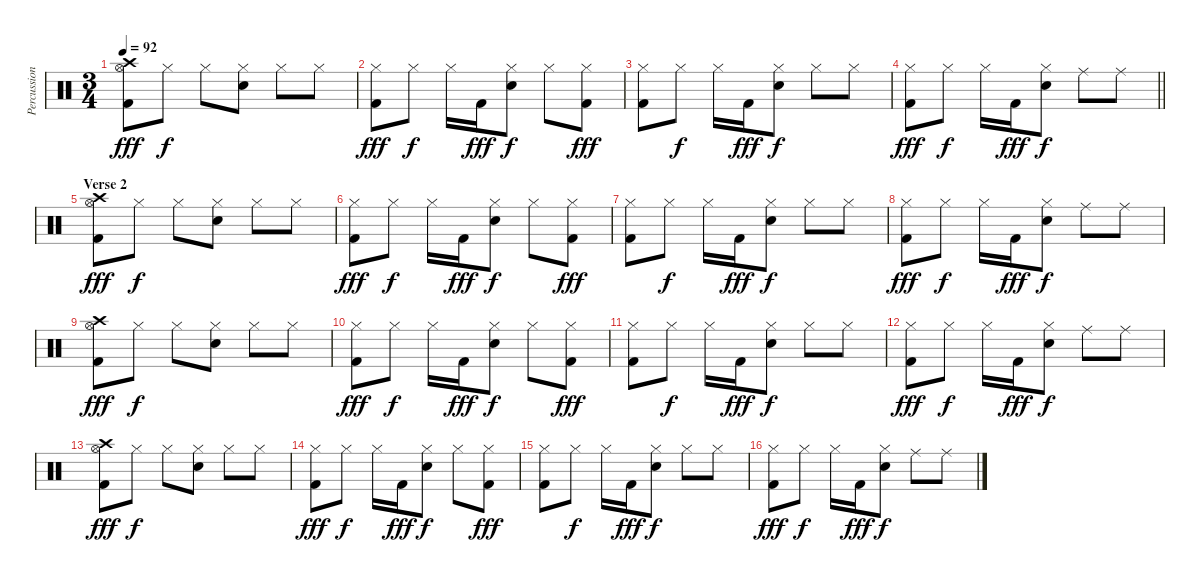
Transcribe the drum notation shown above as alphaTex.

\track ("Percussion" "Percussion") {instrument percussion}
\staff {score}
\articulation defaults
\ts (3 4)
\tempo 92
\clef neutral
\ks c
("Kick (hit) 2" "Hi-Hat (open)" "Crash high (hit)").8{dy fff} "Hi-Hat (closed)".8{dy f} "Hi-Hat (closed)".8 ("Electric Snare (hit)" "Hi-Hat (closed)").8 "Hi-Hat (closed)".8 "Hi-Hat (closed)".8 |
("Kick (hit) 2" "Hi-Hat (closed)").8{dy fff} "Hi-Hat (closed)".8{dy f} "Hi-Hat (closed)".16 "Kick (hit) 2".16{dy fff} ("Electric Snare (hit)" "Hi-Hat (closed)").8{dy f} "Hi-Hat (closed)".8 ("Kick (hit) 2" "Hi-Hat (closed)").8{dy fff} |
("Kick (hit) 2" "Hi-Hat (closed)").8 "Hi-Hat (closed)".8{dy f} "Hi-Hat (closed)".16 "Kick (hit) 2".16{dy fff} ("Electric Snare (hit)" "Hi-Hat (closed)").8{dy f} "Hi-Hat (closed)".8 "Hi-Hat (closed)".8 |
\barLineRight lightlight
("Kick (hit) 2" "Hi-Hat (closed)").8{dy fff} "Hi-Hat (closed)".8{dy f} "Hi-Hat (closed)".16 "Kick (hit) 2".16{dy fff} ("Electric Snare (hit)" "Hi-Hat (closed)").8{dy f} "Ride (middle)".8 "Ride (middle)".8 |
\section ("" "Verse 2")
("Kick (hit) 2" "Hi-Hat (open)" "Crash high (hit)").8{dy fff} "Hi-Hat (closed)".8{dy f} "Hi-Hat (closed)".8 ("Electric Snare (hit)" "Hi-Hat (closed)").8 "Hi-Hat (closed)".8 "Hi-Hat (closed)".8 |
("Kick (hit) 2" "Hi-Hat (closed)").8{dy fff} "Hi-Hat (closed)".8{dy f} "Hi-Hat (closed)".16 "Kick (hit) 2".16{dy fff} ("Electric Snare (hit)" "Hi-Hat (closed)").8{dy f} "Hi-Hat (closed)".8 ("Kick (hit) 2" "Hi-Hat (closed)").8{dy fff} |
("Kick (hit) 2" "Hi-Hat (closed)").8 "Hi-Hat (closed)".8{dy f} "Hi-Hat (closed)".16 "Kick (hit) 2".16{dy fff} ("Electric Snare (hit)" "Hi-Hat (closed)").8{dy f} "Hi-Hat (closed)".8 "Hi-Hat (closed)".8 |
("Kick (hit) 2" "Hi-Hat (closed)").8{dy fff} "Hi-Hat (closed)".8{dy f} "Hi-Hat (closed)".16 "Kick (hit) 2".16{dy fff} ("Electric Snare (hit)" "Hi-Hat (closed)").8{dy f} "Ride (middle)".8 "Ride (middle)".8 |
("Kick (hit) 2" "Hi-Hat (open)" "Crash high (hit)").8{dy fff} "Hi-Hat (closed)".8{dy f} "Hi-Hat (closed)".8 ("Electric Snare (hit)" "Hi-Hat (closed)").8 "Hi-Hat (closed)".8 "Hi-Hat (closed)".8 |
("Kick (hit) 2" "Hi-Hat (closed)").8{dy fff} "Hi-Hat (closed)".8{dy f} "Hi-Hat (closed)".16 "Kick (hit) 2".16{dy fff} ("Electric Snare (hit)" "Hi-Hat (closed)").8{dy f} "Hi-Hat (closed)".8 ("Kick (hit) 2" "Hi-Hat (closed)").8{dy fff} |
("Kick (hit) 2" "Hi-Hat (closed)").8 "Hi-Hat (closed)".8{dy f} "Hi-Hat (closed)".16 "Kick (hit) 2".16{dy fff} ("Electric Snare (hit)" "Hi-Hat (closed)").8{dy f} "Hi-Hat (closed)".8 "Hi-Hat (closed)".8 |
("Kick (hit) 2" "Hi-Hat (closed)").8{dy fff} "Hi-Hat (closed)".8{dy f} "Hi-Hat (closed)".16 "Kick (hit) 2".16{dy fff} ("Electric Snare (hit)" "Hi-Hat (closed)").8{dy f} "Ride (middle)".8 "Ride (middle)".8 |
("Kick (hit) 2" "Hi-Hat (open)" "Crash high (hit)").8{dy fff} "Hi-Hat (closed)".8{dy f} "Hi-Hat (closed)".8 ("Electric Snare (hit)" "Hi-Hat (closed)").8 "Hi-Hat (closed)".8 "Hi-Hat (closed)".8 |
("Kick (hit) 2" "Hi-Hat (closed)").8{dy fff} "Hi-Hat (closed)".8{dy f} "Hi-Hat (closed)".16 "Kick (hit) 2".16{dy fff} ("Electric Snare (hit)" "Hi-Hat (closed)").8{dy f} "Hi-Hat (closed)".8 ("Kick (hit) 2" "Hi-Hat (closed)").8{dy fff} |
("Kick (hit) 2" "Hi-Hat (closed)").8 "Hi-Hat (closed)".8{dy f} "Hi-Hat (closed)".16 "Kick (hit) 2".16{dy fff} ("Electric Snare (hit)" "Hi-Hat (closed)").8{dy f} "Hi-Hat (closed)".8 "Hi-Hat (closed)".8 |
("Kick (hit) 2" "Hi-Hat (closed)").8{dy fff} "Hi-Hat (closed)".8{dy f} "Hi-Hat (closed)".16 "Kick (hit) 2".16{dy fff} ("Electric Snare (hit)" "Hi-Hat (closed)").8{dy f} "Ride (middle)".8 "Ride (middle)".8
